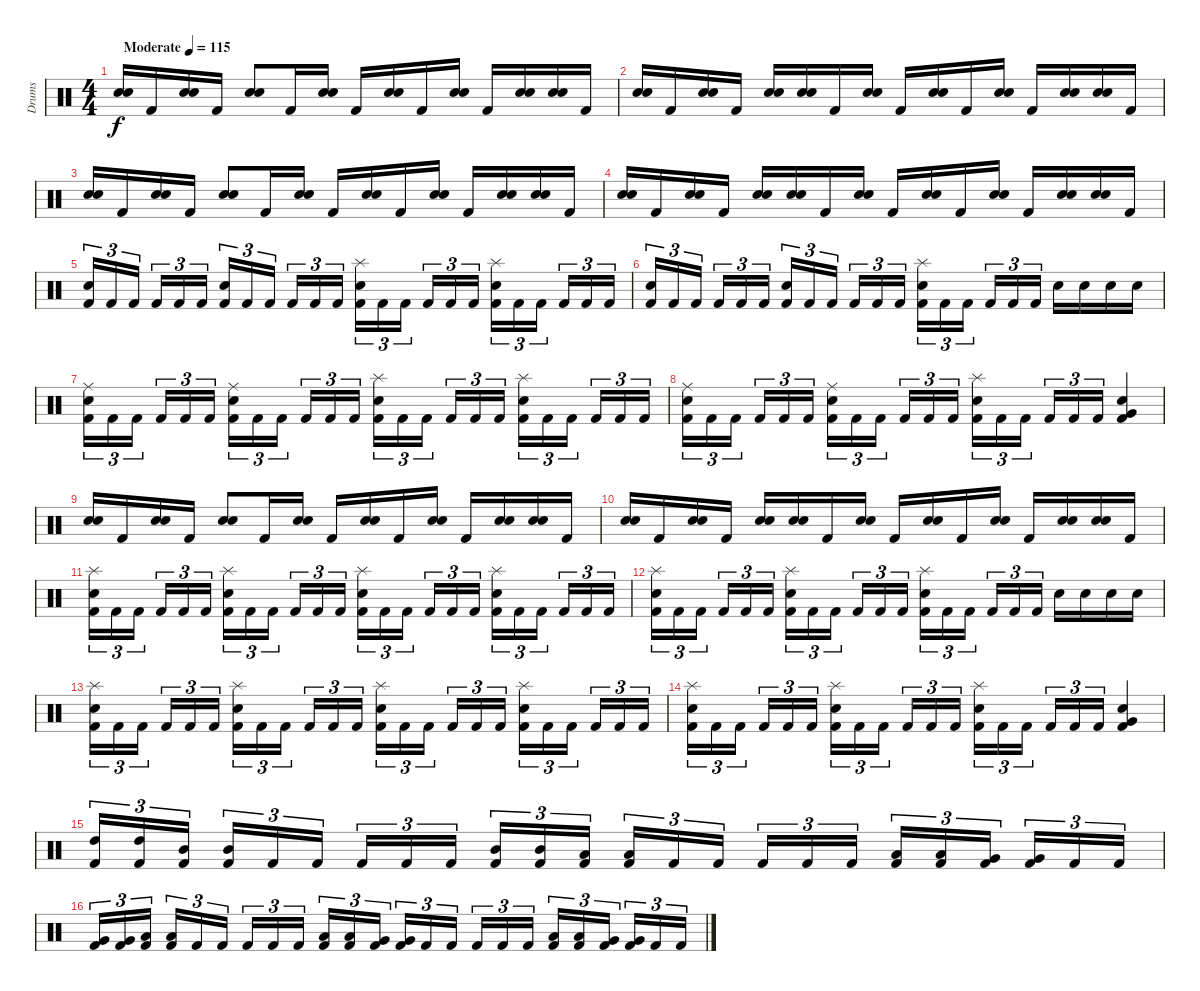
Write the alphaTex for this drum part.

\track ("Drums" "Drums") {instrument percussion}
\staff {score}
\articulation defaults
\ts (4 4)
\tempo (115 "Moderate")
\clef neutral
\ks c
("Snare (hit) 2" "Electric Snare (hit)").16{dy f} "Kick (hit) 2".16 ("Snare (hit) 2" "Electric Snare (hit)").16 "Kick (hit) 2".16 ("Snare (hit) 2" "Electric Snare (hit)").8 "Kick (hit) 2".16 ("Snare (hit) 2" "Electric Snare (hit)").16 "Kick (hit) 2".16 ("Snare (hit) 2" "Electric Snare (hit)").16 "Kick (hit) 2".16 ("Snare (hit) 2" "Electric Snare (hit)").16 "Kick (hit) 2".16 ("Snare (hit) 2" "Electric Snare (hit)").16 ("Snare (hit) 2" "Electric Snare (hit)").16 "Kick (hit) 2".16 |
("Snare (hit) 2" "Electric Snare (hit)").16 "Kick (hit) 2".16 ("Snare (hit) 2" "Electric Snare (hit)").16 "Kick (hit) 2".16 ("Snare (hit) 2" "Electric Snare (hit)").16 ("Snare (hit) 2" "Electric Snare (hit)").16 "Kick (hit) 2".16 ("Snare (hit) 2" "Electric Snare (hit)").16 "Kick (hit) 2".16 ("Snare (hit) 2" "Electric Snare (hit)").16 "Kick (hit) 2".16 ("Snare (hit) 2" "Electric Snare (hit)").16 "Kick (hit) 2".16 ("Snare (hit) 2" "Electric Snare (hit)").16 ("Snare (hit) 2" "Electric Snare (hit)").16 "Kick (hit) 2".16 |
("Snare (hit) 2" "Electric Snare (hit)").16 "Kick (hit) 2".16 ("Snare (hit) 2" "Electric Snare (hit)").16 "Kick (hit) 2".16 ("Snare (hit) 2" "Electric Snare (hit)").8 "Kick (hit) 2".16 ("Snare (hit) 2" "Electric Snare (hit)").16 "Kick (hit) 2".16 ("Snare (hit) 2" "Electric Snare (hit)").16 "Kick (hit) 2".16 ("Snare (hit) 2" "Electric Snare (hit)").16 "Kick (hit) 2".16 ("Snare (hit) 2" "Electric Snare (hit)").16 ("Snare (hit) 2" "Electric Snare (hit)").16 "Kick (hit) 2".16 |
("Snare (hit) 2" "Electric Snare (hit)").16 "Kick (hit) 2".16 ("Snare (hit) 2" "Electric Snare (hit)").16 "Kick (hit) 2".16 ("Snare (hit) 2" "Electric Snare (hit)").16 ("Snare (hit) 2" "Electric Snare (hit)").16 "Kick (hit) 2".16 ("Snare (hit) 2" "Electric Snare (hit)").16 "Kick (hit) 2".16 ("Snare (hit) 2" "Electric Snare (hit)").16 "Kick (hit) 2".16 ("Snare (hit) 2" "Electric Snare (hit)").16 "Kick (hit) 2".16 ("Snare (hit) 2" "Electric Snare (hit)").16 ("Snare (hit) 2" "Electric Snare (hit)").16 "Kick (hit) 2".16 |
("Snare (hit) 2" "Kick (hit) 2").16{tu (3 2)} "Kick (hit) 2".16{tu (3 2)} "Kick (hit) 2".16{tu (3 2) beam splitsecondary} "Kick (hit) 2".16{tu (3 2)} "Kick (hit) 2".16{tu (3 2)} "Kick (hit) 2".16{tu (3 2)} ("Snare (hit) 2" "Kick (hit) 2").16{tu (3 2)} "Kick (hit) 2".16{tu (3 2)} "Kick (hit) 2".16{tu (3 2) beam splitsecondary} "Kick (hit) 2".16{tu (3 2)} "Kick (hit) 2".16{tu (3 2)} "Kick (hit) 2".16{tu (3 2)} ("Splash (hit)" "Snare (hit) 2" "Kick (hit) 2").16{tu (3 2)} "Kick (hit) 2".16{tu (3 2)} "Kick (hit) 2".16{tu (3 2) beam splitsecondary} "Kick (hit) 2".16{tu (3 2)} "Kick (hit) 2".16{tu (3 2)} "Kick (hit) 2".16{tu (3 2)} ("Splash (hit)" "Snare (hit) 2" "Kick (hit) 2").16{tu (3 2)} "Kick (hit) 2".16{tu (3 2)} "Kick (hit) 2".16{tu (3 2) beam splitsecondary} "Kick (hit) 2".16{tu (3 2)} "Kick (hit) 2".16{tu (3 2)} "Kick (hit) 2".16{tu (3 2)} |
("Snare (hit) 2" "Kick (hit) 2").16{tu (3 2)} "Kick (hit) 2".16{tu (3 2)} "Kick (hit) 2".16{tu (3 2) beam splitsecondary} "Kick (hit) 2".16{tu (3 2)} "Kick (hit) 2".16{tu (3 2)} "Kick (hit) 2".16{tu (3 2)} ("Snare (hit) 2" "Kick (hit) 2").16{tu (3 2)} "Kick (hit) 2".16{tu (3 2)} "Kick (hit) 2".16{tu (3 2) beam splitsecondary} "Kick (hit) 2".16{tu (3 2)} "Kick (hit) 2".16{tu (3 2)} "Kick (hit) 2".16{tu (3 2)} ("Splash (hit)" "Snare (hit) 2" "Kick (hit) 2").16{tu (3 2)} "Kick (hit) 2".16{tu (3 2)} "Kick (hit) 2".16{tu (3 2) beam splitsecondary} "Kick (hit) 2".16{tu (3 2)} "Kick (hit) 2".16{tu (3 2)} "Kick (hit) 2".16{tu (3 2)} "Snare (hit) 2".16 "Snare (hit) 2".16 "Snare (hit) 2".16 "Snare (hit) 2".16 |
("Ride (middle)" "Snare (hit) 2" "Kick (hit) 2").16{tu (3 2)} "Kick (hit) 2".16{tu (3 2)} "Kick (hit) 2".16{tu (3 2) beam splitsecondary} "Kick (hit) 2".16{tu (3 2)} "Kick (hit) 2".16{tu (3 2)} "Kick (hit) 2".16{tu (3 2)} ("Ride (middle)" "Snare (hit) 2" "Kick (hit) 2").16{tu (3 2)} "Kick (hit) 2".16{tu (3 2)} "Kick (hit) 2".16{tu (3 2) beam splitsecondary} "Kick (hit) 2".16{tu (3 2)} "Kick (hit) 2".16{tu (3 2)} "Kick (hit) 2".16{tu (3 2)} ("Splash (hit)" "Snare (hit) 2" "Kick (hit) 2").16{tu (3 2)} "Kick (hit) 2".16{tu (3 2)} "Kick (hit) 2".16{tu (3 2) beam splitsecondary} "Kick (hit) 2".16{tu (3 2)} "Kick (hit) 2".16{tu (3 2)} "Kick (hit) 2".16{tu (3 2)} ("Splash (hit)" "Snare (hit) 2" "Kick (hit) 2").16{tu (3 2)} "Kick (hit) 2".16{tu (3 2)} "Kick (hit) 2".16{tu (3 2) beam splitsecondary} "Kick (hit) 2".16{tu (3 2)} "Kick (hit) 2".16{tu (3 2)} "Kick (hit) 2".16{tu (3 2)} |
("Ride (middle)" "Snare (hit) 2" "Kick (hit) 2").16{tu (3 2)} "Kick (hit) 2".16{tu (3 2)} "Kick (hit) 2".16{tu (3 2) beam splitsecondary} "Kick (hit) 2".16{tu (3 2)} "Kick (hit) 2".16{tu (3 2)} "Kick (hit) 2".16{tu (3 2)} ("Ride (middle)" "Snare (hit) 2" "Kick (hit) 2").16{tu (3 2)} "Kick (hit) 2".16{tu (3 2)} "Kick (hit) 2".16{tu (3 2) beam splitsecondary} "Kick (hit) 2".16{tu (3 2)} "Kick (hit) 2".16{tu (3 2)} "Kick (hit) 2".16{tu (3 2)} ("Splash (hit)" "Snare (hit) 2" "Kick (hit) 2").16{tu (3 2)} "Kick (hit) 2".16{tu (3 2)} "Kick (hit) 2".16{tu (3 2) beam splitsecondary} "Kick (hit) 2".16{tu (3 2)} "Kick (hit) 2".16{tu (3 2)} "Kick (hit) 2".16{tu (3 2)} ("Very Low Tom (hit)" "Snare (hit) 2" "Kick (hit) 2").4 |
("Snare (hit) 2" "Electric Snare (hit)").16 "Kick (hit) 2".16 ("Snare (hit) 2" "Electric Snare (hit)").16 "Kick (hit) 2".16 ("Snare (hit) 2" "Electric Snare (hit)").8 "Kick (hit) 2".16 ("Snare (hit) 2" "Electric Snare (hit)").16 "Kick (hit) 2".16 ("Snare (hit) 2" "Electric Snare (hit)").16 "Kick (hit) 2".16 ("Snare (hit) 2" "Electric Snare (hit)").16 "Kick (hit) 2".16 ("Snare (hit) 2" "Electric Snare (hit)").16 ("Snare (hit) 2" "Electric Snare (hit)").16 "Kick (hit) 2".16 |
("Snare (hit) 2" "Electric Snare (hit)").16 "Kick (hit) 2".16 ("Snare (hit) 2" "Electric Snare (hit)").16 "Kick (hit) 2".16 ("Snare (hit) 2" "Electric Snare (hit)").16 ("Snare (hit) 2" "Electric Snare (hit)").16 "Kick (hit) 2".16 ("Snare (hit) 2" "Electric Snare (hit)").16 "Kick (hit) 2".16 ("Snare (hit) 2" "Electric Snare (hit)").16 "Kick (hit) 2".16 ("Snare (hit) 2" "Electric Snare (hit)").16 "Kick (hit) 2".16 ("Snare (hit) 2" "Electric Snare (hit)").16 ("Snare (hit) 2" "Electric Snare (hit)").16 "Kick (hit) 2".16 |
("Splash (hit)" "Snare (hit) 2" "Kick (hit) 2").16{tu (3 2)} "Kick (hit) 2".16{tu (3 2)} "Kick (hit) 2".16{tu (3 2) beam splitsecondary} "Kick (hit) 2".16{tu (3 2)} "Kick (hit) 2".16{tu (3 2)} "Kick (hit) 2".16{tu (3 2)} ("Splash (hit)" "Snare (hit) 2" "Kick (hit) 2").16{tu (3 2)} "Kick (hit) 2".16{tu (3 2)} "Kick (hit) 2".16{tu (3 2) beam splitsecondary} "Kick (hit) 2".16{tu (3 2)} "Kick (hit) 2".16{tu (3 2)} "Kick (hit) 2".16{tu (3 2)} ("Splash (hit)" "Snare (hit) 2" "Kick (hit) 2").16{tu (3 2)} "Kick (hit) 2".16{tu (3 2)} "Kick (hit) 2".16{tu (3 2) beam splitsecondary} "Kick (hit) 2".16{tu (3 2)} "Kick (hit) 2".16{tu (3 2)} "Kick (hit) 2".16{tu (3 2)} ("Splash (hit)" "Snare (hit) 2" "Kick (hit) 2").16{tu (3 2)} "Kick (hit) 2".16{tu (3 2)} "Kick (hit) 2".16{tu (3 2) beam splitsecondary} "Kick (hit) 2".16{tu (3 2)} "Kick (hit) 2".16{tu (3 2)} "Kick (hit) 2".16{tu (3 2)} |
("Splash (hit)" "Snare (hit) 2" "Kick (hit) 2").16{tu (3 2)} "Kick (hit) 2".16{tu (3 2)} "Kick (hit) 2".16{tu (3 2) beam splitsecondary} "Kick (hit) 2".16{tu (3 2)} "Kick (hit) 2".16{tu (3 2)} "Kick (hit) 2".16{tu (3 2)} ("Splash (hit)" "Snare (hit) 2" "Kick (hit) 2").16{tu (3 2)} "Kick (hit) 2".16{tu (3 2)} "Kick (hit) 2".16{tu (3 2) beam splitsecondary} "Kick (hit) 2".16{tu (3 2)} "Kick (hit) 2".16{tu (3 2)} "Kick (hit) 2".16{tu (3 2)} ("Splash (hit)" "Snare (hit) 2" "Kick (hit) 2").16{tu (3 2)} "Kick (hit) 2".16{tu (3 2)} "Kick (hit) 2".16{tu (3 2) beam splitsecondary} "Kick (hit) 2".16{tu (3 2)} "Kick (hit) 2".16{tu (3 2)} "Kick (hit) 2".16{tu (3 2)} "Snare (hit) 2".16 "Snare (hit) 2".16 "Snare (hit) 2".16 "Snare (hit) 2".16 |
("Splash (hit)" "Snare (hit) 2" "Kick (hit) 2").16{tu (3 2)} "Kick (hit) 2".16{tu (3 2)} "Kick (hit) 2".16{tu (3 2) beam splitsecondary} "Kick (hit) 2".16{tu (3 2)} "Kick (hit) 2".16{tu (3 2)} "Kick (hit) 2".16{tu (3 2)} ("Splash (hit)" "Snare (hit) 2" "Kick (hit) 2").16{tu (3 2)} "Kick (hit) 2".16{tu (3 2)} "Kick (hit) 2".16{tu (3 2) beam splitsecondary} "Kick (hit) 2".16{tu (3 2)} "Kick (hit) 2".16{tu (3 2)} "Kick (hit) 2".16{tu (3 2)} ("Splash (hit)" "Snare (hit) 2" "Kick (hit) 2").16{tu (3 2)} "Kick (hit) 2".16{tu (3 2)} "Kick (hit) 2".16{tu (3 2) beam splitsecondary} "Kick (hit) 2".16{tu (3 2)} "Kick (hit) 2".16{tu (3 2)} "Kick (hit) 2".16{tu (3 2)} ("Splash (hit)" "Snare (hit) 2" "Kick (hit) 2").16{tu (3 2)} "Kick (hit) 2".16{tu (3 2)} "Kick (hit) 2".16{tu (3 2) beam splitsecondary} "Kick (hit) 2".16{tu (3 2)} "Kick (hit) 2".16{tu (3 2)} "Kick (hit) 2".16{tu (3 2)} |
("Splash (hit)" "Snare (hit) 2" "Kick (hit) 2").16{tu (3 2)} "Kick (hit) 2".16{tu (3 2)} "Kick (hit) 2".16{tu (3 2) beam splitsecondary} "Kick (hit) 2".16{tu (3 2)} "Kick (hit) 2".16{tu (3 2)} "Kick (hit) 2".16{tu (3 2)} ("Splash (hit)" "Snare (hit) 2" "Kick (hit) 2").16{tu (3 2)} "Kick (hit) 2".16{tu (3 2)} "Kick (hit) 2".16{tu (3 2) beam splitsecondary} "Kick (hit) 2".16{tu (3 2)} "Kick (hit) 2".16{tu (3 2)} "Kick (hit) 2".16{tu (3 2)} ("Splash (hit)" "Snare (hit) 2" "Kick (hit) 2").16{tu (3 2)} "Kick (hit) 2".16{tu (3 2)} "Kick (hit) 2".16{tu (3 2) beam splitsecondary} "Kick (hit) 2".16{tu (3 2)} "Kick (hit) 2".16{tu (3 2)} "Kick (hit) 2".16{tu (3 2)} ("Very Low Tom (hit)" "Snare (hit) 2" "Kick (hit) 2").4 |
("High Tom (hit)" "Kick (hit) 2").16{tu (3 2)} ("High Tom (hit)" "Kick (hit) 2").16{tu (3 2)} ("Mid Tom (hit)" "Kick (hit) 2").16{tu (3 2) beam splitsecondary} ("Mid Tom (hit)" "Kick (hit) 2").16{tu (3 2)} "Kick (hit) 2".16{tu (3 2)} "Kick (hit) 2".16{tu (3 2)} "Kick (hit) 2".16{tu (3 2)} "Kick (hit) 2".16{tu (3 2)} "Kick (hit) 2".16{tu (3 2) beam splitsecondary} ("Mid Tom (hit)" "Kick (hit) 2").16{tu (3 2)} ("Mid Tom (hit)" "Kick (hit) 2").16{tu (3 2)} ("Low Tom (hit)" "Kick (hit) 2").16{tu (3 2)} ("Low Tom (hit)" "Kick (hit) 2").16{tu (3 2)} "Kick (hit) 2".16{tu (3 2)} "Kick (hit) 2".16{tu (3 2) beam splitsecondary} "Kick (hit) 2".16{tu (3 2)} "Kick (hit) 2".16{tu (3 2)} "Kick (hit) 2".16{tu (3 2)} ("Low Tom (hit)" "Kick (hit) 2").16{tu (3 2)} ("Low Tom (hit)" "Kick (hit) 2").16{tu (3 2)} ("Very Low Tom (hit)" "Kick (hit) 2").16{tu (3 2) beam splitsecondary} ("Very Low Tom (hit)" "Kick (hit) 2").16{tu (3 2)} "Kick (hit) 2".16{tu (3 2)} "Kick (hit) 2".16{tu (3 2)} |
("Very Low Tom (hit)" "Kick (hit) 2").16{tu (3 2)} ("Very Low Tom (hit)" "Kick (hit) 2").16{tu (3 2)} ("Low Floor Tom (hit)" "Kick (hit) 2").16{tu (3 2) beam splitsecondary} ("Low Floor Tom (hit)" "Kick (hit) 2").16{tu (3 2)} "Kick (hit) 2".16{tu (3 2)} "Kick (hit) 2".16{tu (3 2)} "Kick (hit) 2".16{tu (3 2)} "Kick (hit) 2".16{tu (3 2)} "Kick (hit) 2".16{tu (3 2) beam splitsecondary} ("Low Tom (hit)" "Kick (hit) 2").16{tu (3 2)} ("Low Tom (hit)" "Kick (hit) 2").16{tu (3 2)} ("Very Low Tom (hit)" "Kick (hit) 2").16{tu (3 2)} ("Very Low Tom (hit)" "Kick (hit) 2").16{tu (3 2)} "Kick (hit) 2".16{tu (3 2)} "Kick (hit) 2".16{tu (3 2) beam splitsecondary} "Kick (hit) 2".16{tu (3 2)} "Kick (hit) 2".16{tu (3 2)} "Kick (hit) 2".16{tu (3 2)} ("Low Tom (hit)" "Kick (hit) 2").16{tu (3 2)} ("Low Tom (hit)" "Kick (hit) 2").16{tu (3 2)} ("Very Low Tom (hit)" "Kick (hit) 2").16{tu (3 2) beam splitsecondary} ("Very Low Tom (hit)" "Kick (hit) 2").16{tu (3 2)} "Kick (hit) 2".16{tu (3 2)} "Kick (hit) 2".16{tu (3 2)}
